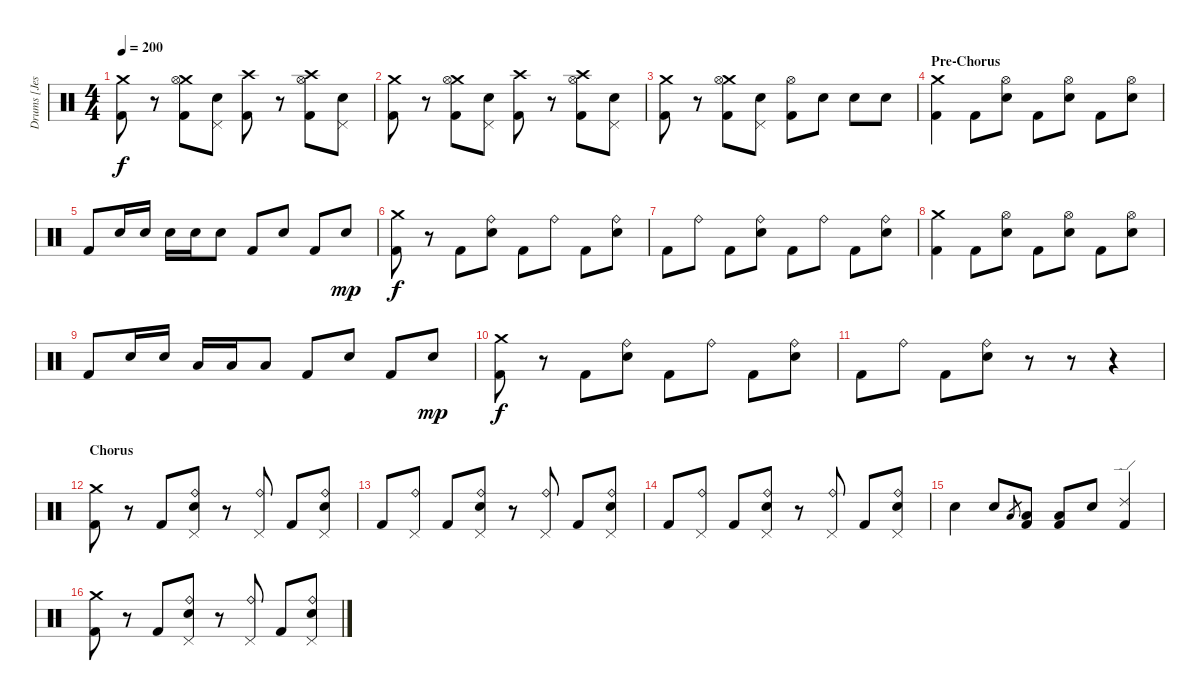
\track ("Drums [Jesse Ingelevics]" "Drums [Jes") {instrument percussion}
\staff {score}
\articulation defaults
\ts (4 4)
\tempo 200
\clef neutral
\ks c
("Crash medium (hit)" "Kick (hit) 2").8{dy f} r.8 ("Crash medium (hit)" "Hi-Hat (open)" "Kick (hit) 2").8 ("Pedal Hi-Hat (hit)" "Electric Snare (hit)").8 ("Crash high (hit)" "Kick (hit) 2").8 r.8 ("Crash high (hit)" "Hi-Hat (open)" "Kick (hit) 2").8 ("Pedal Hi-Hat (hit)" "Electric Snare (hit)").8 |
("Crash medium (hit)" "Kick (hit) 2").8 r.8 ("Crash medium (hit)" "Hi-Hat (open)" "Kick (hit) 2").8 ("Pedal Hi-Hat (hit)" "Electric Snare (hit)").8 ("Crash high (hit)" "Kick (hit) 2").8 r.8 ("Crash high (hit)" "Hi-Hat (open)" "Kick (hit) 2").8 ("Pedal Hi-Hat (hit)" "Electric Snare (hit)").8 |
("Crash medium (hit)" "Kick (hit) 2").8 r.8 ("Crash medium (hit)" "Hi-Hat (open)" "Kick (hit) 2").8 ("Pedal Hi-Hat (hit)" "Electric Snare (hit)").8 ("Hi-Hat (open)" "Kick (hit) 2").8 "Electric Snare (hit)".8 "Electric Snare (hit)".8 "Electric Snare (hit)".8 |
\section ("" "Pre-Chorus")
("Crash medium (hit)" "Kick (hit) 2").4 "Kick (hit) 2".8 ("Hi-Hat (open)" "Electric Snare (hit)").8 "Kick (hit) 2".8 ("Hi-Hat (open)" "Electric Snare (hit)").8 "Kick (hit) 2".8 ("Hi-Hat (open)" "Electric Snare (hit)").8 |
"Kick (hit) 2".8 "Electric Snare (hit)".16 "Electric Snare (hit)".16 "Electric Snare (hit)".16 "Electric Snare (hit)".16 "Electric Snare (hit)".8 "Kick (hit) 2".8 "Electric Snare (hit)".8 "Kick (hit) 2".8 "Electric Snare (hit)".8{dy mp} |
("Crash medium (hit)" "Kick (hit) 2").8{dy f} r.8 "Kick (hit) 2".8 ("Ride (bell)" "Electric Snare (hit)").8 "Kick (hit) 2".8 "Ride (bell)".8 "Kick (hit) 2".8 ("Ride (bell)" "Electric Snare (hit)").8 |
"Kick (hit) 2".8 "Ride (bell)".8 "Kick (hit) 2".8 ("Ride (bell)" "Electric Snare (hit)").8 "Kick (hit) 2".8 "Ride (bell)".8 "Kick (hit) 2".8 ("Ride (bell)" "Electric Snare (hit)").8 |
("Crash medium (hit)" "Kick (hit) 2").4 "Kick (hit) 2".8 ("Hi-Hat (open)" "Electric Snare (hit)").8 "Kick (hit) 2".8 ("Hi-Hat (open)" "Electric Snare (hit)").8 "Kick (hit) 2".8 ("Hi-Hat (open)" "Electric Snare (hit)").8 |
"Kick (hit) 2".8 "Electric Snare (hit)".16 "Electric Snare (hit)".16 "Low Tom (hit)".16 "Low Tom (hit)".16 "Low Tom (hit)".8 "Kick (hit) 2".8 "Electric Snare (hit)".8 "Kick (hit) 2".8 "Electric Snare (hit)".8{dy mp} |
("Crash medium (hit)" "Kick (hit) 2").8{dy f} r.8 "Kick (hit) 2".8 ("Ride (bell)" "Electric Snare (hit)").8 "Kick (hit) 2".8 "Ride (bell)".8 "Kick (hit) 2".8 ("Ride (bell)" "Electric Snare (hit)").8 |
"Kick (hit) 2".8 "Ride (bell)".8 "Kick (hit) 2".8 ("Ride (bell)" "Electric Snare (hit)").8 r.8 r.8 r.4 |
\section ("" "Chorus")
("Crash medium (hit)" "Kick (hit) 2").8 r.8 "Kick (hit) 2".8 ("Ride (bell)" "Pedal Hi-Hat (hit)" "Electric Snare (hit)").8 r.8 ("Ride (bell)" "Pedal Hi-Hat (hit)").8 "Kick (hit) 2".8 ("Ride (bell)" "Pedal Hi-Hat (hit)" "Electric Snare (hit)").8 |
"Kick (hit) 2".8 ("Ride (bell)" "Pedal Hi-Hat (hit)").8 "Kick (hit) 2".8 ("Ride (bell)" "Pedal Hi-Hat (hit)" "Electric Snare (hit)").8 r.8 ("Ride (bell)" "Pedal Hi-Hat (hit)").8 "Kick (hit) 2".8 ("Ride (bell)" "Pedal Hi-Hat (hit)" "Electric Snare (hit)").8 |
"Kick (hit) 2".8 ("Ride (bell)" "Pedal Hi-Hat (hit)").8 "Kick (hit) 2".8 ("Ride (bell)" "Pedal Hi-Hat (hit)" "Electric Snare (hit)").8 r.8 ("Ride (bell)" "Pedal Hi-Hat (hit)").8 "Kick (hit) 2".8 ("Ride (bell)" "Pedal Hi-Hat (hit)" "Electric Snare (hit)").8 |
"Electric Snare (hit)".4 "Electric Snare (hit)".8 "Low Tom (hit)".8{gr} ("Low Tom (hit)" "Kick (hit) 2").8 ("Low Tom (hit)" "Kick (hit) 2").8 "Electric Snare (hit)".8 ("Ride (edge) 2" "Kick (hit) 2").4 |
("Crash medium (hit)" "Kick (hit) 2").8 r.8 "Kick (hit) 2".8 ("Ride (bell)" "Pedal Hi-Hat (hit)" "Electric Snare (hit)").8 r.8 ("Ride (bell)" "Pedal Hi-Hat (hit)").8 "Kick (hit) 2".8 ("Ride (bell)" "Pedal Hi-Hat (hit)" "Electric Snare (hit)").8
